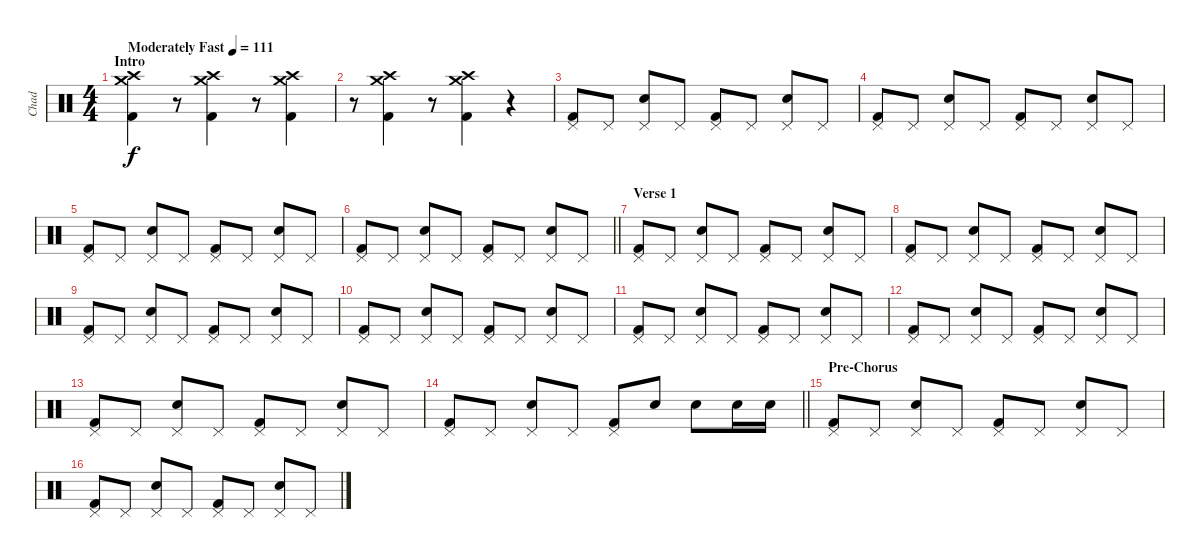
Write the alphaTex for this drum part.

\track ("Chad" "Chad") {instrument percussion}
\staff {score}
\articulation defaults
\ts (4 4)
\section ("" "Intro")
\tempo (111 "Moderately Fast")
\clef neutral
\ks c
("Crash high (hit)" "Crash medium (hit)" "Kick (hit) 2").4{dy f} r.8 ("Crash high (hit)" "Crash medium (hit)" "Kick (hit) 2").4 r.8 ("Crash high (hit)" "Crash medium (hit)" "Kick (hit) 2").4 |
r.8 ("Crash high (hit)" "Crash medium (hit)" "Kick (hit) 2").4 r.8 ("Crash high (hit)" "Crash medium (hit)" "Kick (hit) 2").4 r.4 |
("Pedal Hi-Hat (hit)" "Kick (hit) 2").8 "Pedal Hi-Hat (hit)".8 ("Pedal Hi-Hat (hit)" "Snare (hit) 2").8 "Pedal Hi-Hat (hit)".8 ("Pedal Hi-Hat (hit)" "Kick (hit) 2").8 "Pedal Hi-Hat (hit)".8 ("Pedal Hi-Hat (hit)" "Snare (hit) 2").8 "Pedal Hi-Hat (hit)".8 |
("Pedal Hi-Hat (hit)" "Kick (hit) 2").8 "Pedal Hi-Hat (hit)".8 ("Pedal Hi-Hat (hit)" "Snare (hit) 2").8 "Pedal Hi-Hat (hit)".8 ("Pedal Hi-Hat (hit)" "Kick (hit) 2").8 "Pedal Hi-Hat (hit)".8 ("Pedal Hi-Hat (hit)" "Snare (hit) 2").8 "Pedal Hi-Hat (hit)".8 |
("Pedal Hi-Hat (hit)" "Kick (hit) 2").8 "Pedal Hi-Hat (hit)".8 ("Pedal Hi-Hat (hit)" "Snare (hit) 2").8 "Pedal Hi-Hat (hit)".8 ("Pedal Hi-Hat (hit)" "Kick (hit) 2").8 "Pedal Hi-Hat (hit)".8 ("Pedal Hi-Hat (hit)" "Snare (hit) 2").8 "Pedal Hi-Hat (hit)".8 |
\barLineRight lightlight
("Pedal Hi-Hat (hit)" "Kick (hit) 2").8 "Pedal Hi-Hat (hit)".8 ("Pedal Hi-Hat (hit)" "Snare (hit) 2").8 "Pedal Hi-Hat (hit)".8 ("Pedal Hi-Hat (hit)" "Kick (hit) 2").8 "Pedal Hi-Hat (hit)".8 ("Pedal Hi-Hat (hit)" "Snare (hit) 2").8 "Pedal Hi-Hat (hit)".8 |
\section ("" "Verse 1")
("Pedal Hi-Hat (hit)" "Kick (hit) 2").8 "Pedal Hi-Hat (hit)".8 ("Pedal Hi-Hat (hit)" "Snare (hit) 2").8 "Pedal Hi-Hat (hit)".8 ("Pedal Hi-Hat (hit)" "Kick (hit) 2").8 "Pedal Hi-Hat (hit)".8 ("Pedal Hi-Hat (hit)" "Snare (hit) 2").8 "Pedal Hi-Hat (hit)".8 |
("Pedal Hi-Hat (hit)" "Kick (hit) 2").8 "Pedal Hi-Hat (hit)".8 ("Pedal Hi-Hat (hit)" "Snare (hit) 2").8 "Pedal Hi-Hat (hit)".8 ("Pedal Hi-Hat (hit)" "Kick (hit) 2").8 "Pedal Hi-Hat (hit)".8 ("Pedal Hi-Hat (hit)" "Snare (hit) 2").8 "Pedal Hi-Hat (hit)".8 |
("Pedal Hi-Hat (hit)" "Kick (hit) 2").8 "Pedal Hi-Hat (hit)".8 ("Pedal Hi-Hat (hit)" "Snare (hit) 2").8 "Pedal Hi-Hat (hit)".8 ("Pedal Hi-Hat (hit)" "Kick (hit) 2").8 "Pedal Hi-Hat (hit)".8 ("Pedal Hi-Hat (hit)" "Snare (hit) 2").8 "Pedal Hi-Hat (hit)".8 |
("Pedal Hi-Hat (hit)" "Kick (hit) 2").8 "Pedal Hi-Hat (hit)".8 ("Pedal Hi-Hat (hit)" "Snare (hit) 2").8 "Pedal Hi-Hat (hit)".8 ("Pedal Hi-Hat (hit)" "Kick (hit) 2").8 "Pedal Hi-Hat (hit)".8 ("Pedal Hi-Hat (hit)" "Snare (hit) 2").8 "Pedal Hi-Hat (hit)".8 |
("Pedal Hi-Hat (hit)" "Kick (hit) 2").8 "Pedal Hi-Hat (hit)".8 ("Pedal Hi-Hat (hit)" "Snare (hit) 2").8 "Pedal Hi-Hat (hit)".8 ("Pedal Hi-Hat (hit)" "Kick (hit) 2").8 "Pedal Hi-Hat (hit)".8 ("Pedal Hi-Hat (hit)" "Snare (hit) 2").8 "Pedal Hi-Hat (hit)".8 |
("Pedal Hi-Hat (hit)" "Kick (hit) 2").8 "Pedal Hi-Hat (hit)".8 ("Pedal Hi-Hat (hit)" "Snare (hit) 2").8 "Pedal Hi-Hat (hit)".8 ("Pedal Hi-Hat (hit)" "Kick (hit) 2").8 "Pedal Hi-Hat (hit)".8 ("Pedal Hi-Hat (hit)" "Snare (hit) 2").8 "Pedal Hi-Hat (hit)".8 |
("Pedal Hi-Hat (hit)" "Kick (hit) 2").8 "Pedal Hi-Hat (hit)".8 ("Pedal Hi-Hat (hit)" "Snare (hit) 2").8 "Pedal Hi-Hat (hit)".8 ("Pedal Hi-Hat (hit)" "Kick (hit) 2").8 "Pedal Hi-Hat (hit)".8 ("Pedal Hi-Hat (hit)" "Snare (hit) 2").8 "Pedal Hi-Hat (hit)".8 |
\barLineRight lightlight
("Pedal Hi-Hat (hit)" "Kick (hit) 2").8 "Pedal Hi-Hat (hit)".8 ("Pedal Hi-Hat (hit)" "Snare (hit) 2").8 "Pedal Hi-Hat (hit)".8 ("Pedal Hi-Hat (hit)" "Kick (hit) 2").8 "Snare (hit) 2".8 "Snare (hit) 2".8 "Snare (hit) 2".16 "Snare (hit) 2".16 |
\section ("" "Pre-Chorus")
("Pedal Hi-Hat (hit)" "Kick (hit) 2").8 "Pedal Hi-Hat (hit)".8 ("Pedal Hi-Hat (hit)" "Snare (hit) 2").8 "Pedal Hi-Hat (hit)".8 ("Pedal Hi-Hat (hit)" "Kick (hit) 2").8 "Pedal Hi-Hat (hit)".8 ("Pedal Hi-Hat (hit)" "Snare (hit) 2").8 "Pedal Hi-Hat (hit)".8 |
("Pedal Hi-Hat (hit)" "Kick (hit) 2").8 "Pedal Hi-Hat (hit)".8 ("Pedal Hi-Hat (hit)" "Snare (hit) 2").8 "Pedal Hi-Hat (hit)".8 ("Pedal Hi-Hat (hit)" "Kick (hit) 2").8 "Pedal Hi-Hat (hit)".8 ("Pedal Hi-Hat (hit)" "Snare (hit) 2").8 "Pedal Hi-Hat (hit)".8
